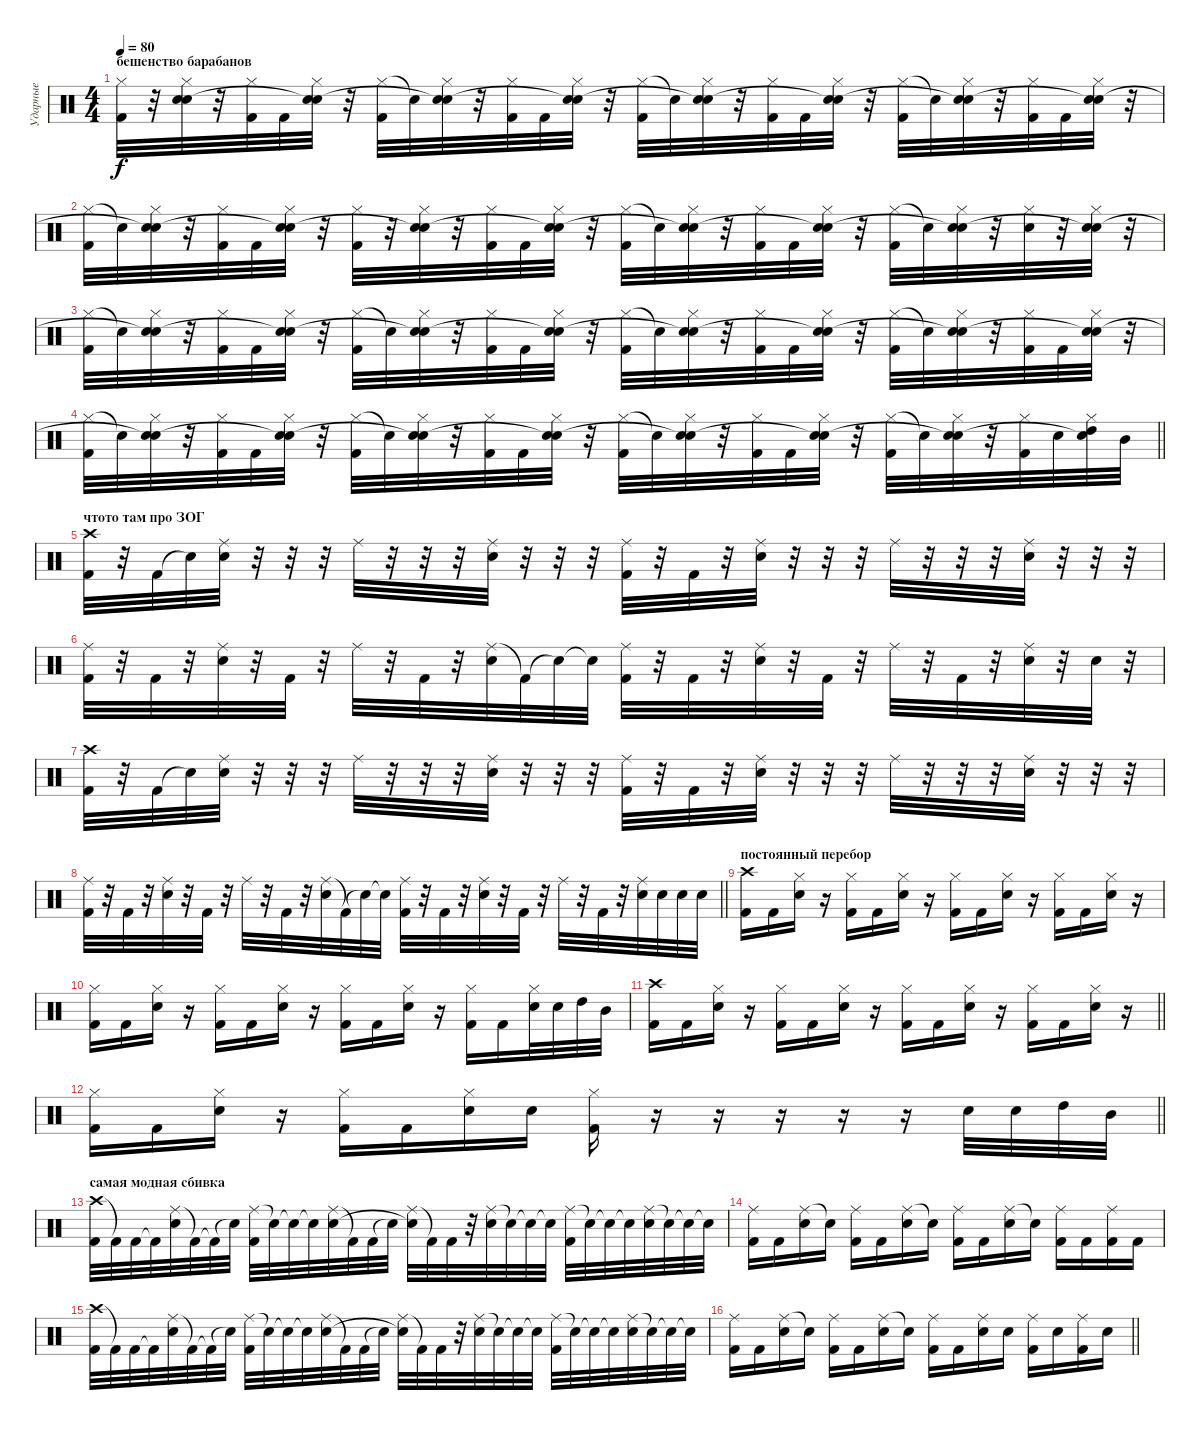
\track ("Ударные" "Ударные") {instrument percussion}
\staff {score}
\articulation defaults
\ts (4 4)
\section ("" "бешенство барабанов")
\tempo 80
\clef neutral
\ks c
("Hi-Hat (closed)" "Kick (hit) 2").32{dy f} r.32 ("Hi-Hat (closed)" "Snare (hit) 2" "Snare (hit)").32 r.32 ("Hi-Hat (closed)" "Kick (hit) 2").32 "Kick (hit) 2".32 ("Hi-Hat (closed)" "Snare (hit) 2" "Snare (hit)"{t}).32 r.32 ("Hi-Hat (closed)" "Kick (hit) 2").32 "Snare (hit)"{t}.32 ("Hi-Hat (closed)" "Snare (hit) 2" "Snare (hit)"{t}).32 r.32 ("Hi-Hat (closed)" "Kick (hit) 2").32 "Kick (hit) 2".32 ("Hi-Hat (closed)" "Snare (hit) 2" "Snare (hit)"{t}).32 r.32 ("Hi-Hat (closed)" "Kick (hit) 2").32 "Snare (hit)"{t}.32 ("Hi-Hat (closed)" "Snare (hit) 2" "Snare (hit)"{t}).32 r.32 ("Hi-Hat (closed)" "Kick (hit) 2").32 "Kick (hit) 2".32 ("Hi-Hat (closed)" "Snare (hit) 2" "Snare (hit)"{t}).32 r.32 ("Hi-Hat (closed)" "Kick (hit) 2").32 "Snare (hit)"{t}.32 ("Hi-Hat (closed)" "Snare (hit) 2" "Snare (hit)"{t}).32 r.32 ("Hi-Hat (closed)" "Kick (hit) 2").32 "Kick (hit) 2".32 ("Hi-Hat (closed)" "Snare (hit) 2" "Snare (hit)"{t}).32 r.32 |
("Hi-Hat (closed)" "Kick (hit) 2").32 "Snare (hit)"{t}.32 ("Hi-Hat (closed)" "Snare (hit) 2" "Snare (hit)"{t}).32 r.32 ("Hi-Hat (closed)" "Kick (hit) 2").32 "Kick (hit) 2".32 ("Hi-Hat (closed)" "Snare (hit) 2" "Snare (hit)"{t}).32 r.32 ("Hi-Hat (closed)" "Kick (hit) 2").32 r.32 ("Hi-Hat (closed)" "Snare (hit) 2" "Snare (hit)"{t}).32 r.32 ("Hi-Hat (closed)" "Kick (hit) 2").32 "Kick (hit) 2".32 ("Hi-Hat (closed)" "Snare (hit) 2" "Snare (hit)"{t}).32 r.32 ("Hi-Hat (closed)" "Kick (hit) 2").32 "Snare (hit)"{t}.32 ("Hi-Hat (closed)" "Snare (hit) 2" "Snare (hit)"{t}).32 r.32 ("Hi-Hat (closed)" "Kick (hit) 2").32 "Kick (hit) 2".32 ("Hi-Hat (closed)" "Snare (hit) 2" "Snare (hit)"{t}).32 r.32 ("Hi-Hat (closed)" "Kick (hit) 2").32 "Snare (hit)"{t}.32 ("Hi-Hat (closed)" "Snare (hit) 2" "Snare (hit)"{t}).32 r.32 ("Hi-Hat (closed)" "Snare (hit) 2").32 r.32 ("Hi-Hat (closed)" "Snare (hit) 2" "Snare (hit)"{t}).32 r.32 |
("Hi-Hat (closed)" "Kick (hit) 2").32 "Snare (hit)"{t}.32 ("Hi-Hat (closed)" "Snare (hit) 2" "Snare (hit)"{t}).32 r.32 ("Hi-Hat (closed)" "Kick (hit) 2").32 "Kick (hit) 2".32 ("Hi-Hat (closed)" "Snare (hit) 2" "Snare (hit)"{t}).32 r.32 ("Hi-Hat (closed)" "Kick (hit) 2").32 "Snare (hit)"{t}.32 ("Hi-Hat (closed)" "Snare (hit) 2" "Snare (hit)"{t}).32 r.32 ("Hi-Hat (closed)" "Kick (hit) 2").32 "Kick (hit) 2".32 ("Hi-Hat (closed)" "Snare (hit) 2" "Snare (hit)"{t}).32 r.32 ("Hi-Hat (closed)" "Kick (hit) 2").32 "Snare (hit)"{t}.32 ("Hi-Hat (closed)" "Snare (hit) 2" "Snare (hit)"{t}).32 r.32 ("Hi-Hat (closed)" "Kick (hit) 2").32 "Kick (hit) 2".32 ("Hi-Hat (closed)" "Snare (hit) 2" "Snare (hit)"{t}).32 r.32 ("Hi-Hat (closed)" "Kick (hit) 2").32 "Snare (hit)"{t}.32 ("Hi-Hat (closed)" "Snare (hit) 2" "Snare (hit)"{t}).32 r.32 ("Hi-Hat (closed)" "Kick (hit) 2").32 "Kick (hit) 2".32 ("Hi-Hat (closed)" "Snare (hit) 2" "Snare (hit)"{t}).32 r.32 |
\barLineRight lightlight
("Hi-Hat (closed)" "Kick (hit) 2").32 "Snare (hit)"{t}.32 ("Hi-Hat (closed)" "Snare (hit) 2" "Snare (hit)"{t}).32 r.32 ("Hi-Hat (closed)" "Kick (hit) 2").32 "Kick (hit) 2".32 ("Hi-Hat (closed)" "Snare (hit) 2" "Snare (hit)"{t}).32 r.32 ("Hi-Hat (closed)" "Kick (hit) 2").32 "Snare (hit)"{t}.32 ("Hi-Hat (closed)" "Snare (hit) 2" "Snare (hit)"{t}).32 r.32 ("Hi-Hat (closed)" "Kick (hit) 2").32 "Kick (hit) 2".32 ("Hi-Hat (closed)" "Snare (hit) 2" "Snare (hit)"{t}).32 r.32 ("Hi-Hat (closed)" "Kick (hit) 2").32 "Snare (hit)"{t}.32 ("Hi-Hat (closed)" "Snare (hit) 2" "Snare (hit)"{t}).32 r.32 ("Hi-Hat (closed)" "Kick (hit) 2").32 "Kick (hit) 2".32 ("Hi-Hat (closed)" "Snare (hit) 2" "Snare (hit)"{t}).32 r.32 ("Hi-Hat (closed)" "Kick (hit) 2").32 "Snare (hit)"{t}.32 ("Hi-Hat (closed)" "Snare (hit) 2" "Snare (hit)"{t}).32 r.32 ("Hi-Hat (closed)" "Kick (hit) 2").32 "Snare (hit) 2".32 ("Hi-Hat (closed)" "High Tom (hit)" "Snare (hit)"{t}).32 "Mid Tom (hit)".32 |
\section ("" "чтото там про ЗОГ")
("Crash high (hit)" "Kick (hit) 2").32 r.32 "Kick (hit) 2".32 "Snare (hit) 2"{t}.32 ("Ride (middle)" "Snare (hit) 2").32 r.32 r.32 r.32 "Ride (middle)".32 r.32 r.32 r.32 ("Ride (middle)" "Snare (hit) 2").32 r.32 r.32 r.32 ("Ride (middle)" "Kick (hit) 2").32 r.32 "Kick (hit) 2".32 r.32 ("Ride (middle)" "Snare (hit) 2").32 r.32 r.32 r.32 "Ride (middle)".32 r.32 r.32 r.32 ("Ride (middle)" "Snare (hit) 2").32 r.32 r.32 r.32 |
("Ride (middle)" "Kick (hit) 2").32 r.32 "Kick (hit) 2".32 r.32 ("Ride (middle)" "Snare (hit) 2").32 r.32 "Kick (hit) 2".32 r.32 "Ride (middle)".32 r.32 "Kick (hit) 2".32 r.32 ("Ride (middle)" "Snare (hit) 2").32 "Kick (hit) 2"{t}.32 "Snare (hit)"{t}.32 "Snare (hit)"{t}.32 ("Ride (middle)" "Kick (hit) 2").32 r.32 "Kick (hit) 2".32 r.32 ("Ride (middle)" "Snare (hit) 2").32 r.32 "Kick (hit) 2".32 r.32 "Ride (middle)".32 r.32 "Kick (hit) 2".32 r.32 ("Ride (middle)" "Snare (hit) 2").32 r.32 "Snare (hit) 2".32 r.32 |
("Crash high (hit)" "Kick (hit) 2").32 r.32 "Kick (hit) 2".32 "Snare (hit) 2"{t}.32 ("Ride (middle)" "Snare (hit) 2").32 r.32 r.32 r.32 "Ride (middle)".32 r.32 r.32 r.32 ("Ride (middle)" "Snare (hit) 2").32 r.32 r.32 r.32 ("Ride (middle)" "Kick (hit) 2").32 r.32 "Kick (hit) 2".32 r.32 ("Ride (middle)" "Snare (hit) 2").32 r.32 r.32 r.32 "Ride (middle)".32 r.32 r.32 r.32 ("Ride (middle)" "Snare (hit) 2").32 r.32 r.32 r.32 |
\barLineRight lightlight
("Ride (middle)" "Kick (hit) 2").32 r.32 "Kick (hit) 2".32 r.32 ("Ride (middle)" "Snare (hit) 2").32 r.32 "Kick (hit) 2".32 r.32 "Ride (middle)".32 r.32 "Kick (hit) 2".32 r.32 ("Ride (middle)" "Snare (hit) 2").32 "Kick (hit) 2"{t}.32 "Snare (hit)"{t}.32 "Snare (hit)"{t}.32 ("Ride (middle)" "Kick (hit) 2").32 r.32 "Kick (hit) 2".32 r.32 ("Ride (middle)" "Snare (hit) 2").32 r.32 "Kick (hit) 2".32 r.32 "Ride (middle)".32 r.32 "Kick (hit) 2".32 r.32 ("Ride (middle)" "Snare (hit) 2").32 "Snare (hit) 2".32 "Snare (hit) 2".32 "Snare (hit) 2".32 |
\section ("" "постоянный перебор")
("Crash high (hit)" "Kick (hit) 2").16 "Kick (hit) 2".16 ("Hi-Hat (closed)" "Snare (hit) 2").16 r.16 ("Hi-Hat (closed)" "Kick (hit) 2").16 "Kick (hit) 2".16 ("Hi-Hat (closed)" "Snare (hit) 2").16 r.16 ("Hi-Hat (closed)" "Kick (hit) 2").16 "Kick (hit) 2".16 ("Hi-Hat (closed)" "Snare (hit) 2").16 r.16 ("Hi-Hat (closed)" "Kick (hit) 2").16 "Kick (hit) 2".16 ("Hi-Hat (closed)" "Snare (hit) 2").16 r.16 |
("Hi-Hat (closed)" "Kick (hit) 2").16 "Kick (hit) 2".16 ("Hi-Hat (closed)" "Snare (hit) 2").16 r.16 ("Hi-Hat (closed)" "Kick (hit) 2").16 "Kick (hit) 2".16 ("Hi-Hat (closed)" "Snare (hit) 2").16 r.16 ("Hi-Hat (closed)" "Kick (hit) 2").16 "Kick (hit) 2".16 ("Hi-Hat (closed)" "Snare (hit) 2").16 r.16 ("Hi-Hat (closed)" "Kick (hit) 2").16 "Kick (hit) 2".16 ("Hi-Hat (closed)" "Snare (hit) 2").32 "Snare (hit) 2".32 "High Tom (hit)".32 "Mid Tom (hit)".32 |
\barLineRight lightlight
("Crash high (hit)" "Kick (hit) 2").16 "Kick (hit) 2".16 ("Hi-Hat (closed)" "Snare (hit) 2").16 r.16 ("Hi-Hat (closed)" "Kick (hit) 2").16 "Kick (hit) 2".16 ("Hi-Hat (closed)" "Snare (hit) 2").16 r.16 ("Hi-Hat (closed)" "Kick (hit) 2").16 "Kick (hit) 2".16 ("Hi-Hat (closed)" "Snare (hit) 2").16 r.16 ("Hi-Hat (closed)" "Kick (hit) 2").16 "Kick (hit) 2".16 ("Hi-Hat (closed)" "Snare (hit) 2").16 r.16 |
\barLineRight lightlight
("Hi-Hat (closed)" "Kick (hit) 2").16 "Kick (hit) 2".16 ("Hi-Hat (closed)" "Snare (hit) 2").16 r.16 ("Hi-Hat (closed)" "Kick (hit) 2").16 "Kick (hit) 2".16 ("Hi-Hat (closed)" "Snare (hit) 2").16 "Snare (hit) 2".16 ("Hi-Hat (closed)" "Kick (hit) 2").16 r.16 r.16 r.16 r.16 r.16 "Snare (hit) 2".32 "Snare (hit) 2".32 "High Tom (hit)".32 "Mid Tom (hit)".32 |
\section ("" "самая модная сбивка")
("Crash high (hit)" "Kick (hit) 2").32 "Kick (hit) 2"{t}.32 "Kick (hit) 2".32 "Kick (hit) 2"{t}.32 ("Ride (middle)" "Snare (hit) 2").32 "Kick (hit) 2"{t}.32 "Kick (hit) 2"{t}.32 "Snare (hit) 2"{t}.32 ("Ride (middle)" "Kick (hit) 2").32 "Snare (hit) 2"{t}.32 "Snare (hit) 2"{t}.32 "Snare (hit) 2"{t}.32 ("Ride (middle)" "Snare (hit) 2").32 "Kick (hit) 2"{t}.32 "Kick (hit) 2".32 "Snare (hit) 2"{t}.32 ("Ride (middle)" "Snare (hit)"{t}).32 "Kick (hit) 2"{t}.32 "Kick (hit) 2".32 r.32 ("Ride (middle)" "Snare (hit) 2").32 "Snare (hit)"{t}.32 "Snare (hit)"{t}.32 "Snare (hit)"{t}.32 ("Ride (middle)" "Kick (hit) 2").32 "Snare (hit)"{t}.32 "Snare (hit)"{t}.32 "Snare (hit)"{t}.32 ("Ride (middle)" "Snare (hit) 2").32 "Snare (hit)"{t}.32 "Snare (hit)"{t}.32 "Snare (hit)"{t}.32 |
("Ride (middle)" "Kick (hit) 2").16 "Kick (hit) 2".16 ("Ride (middle)" "Snare (hit) 2").16 "Snare (hit)"{t}.16 ("Ride (middle)" "Kick (hit) 2").16 "Kick (hit) 2".16 ("Ride (middle)" "Snare (hit) 2").16 "Snare (hit)"{t}.16 ("Ride (middle)" "Kick (hit) 2").16 "Kick (hit) 2".16 ("Ride (middle)" "Snare (hit) 2").16 "Snare (hit)"{t}.16 ("Ride (middle)" "Kick (hit) 2").16 "Kick (hit) 2".16 ("Ride (middle)" "Kick (hit) 2").16 "Kick (hit) 2".16 |
("Crash high (hit)" "Kick (hit) 2").32 "Kick (hit) 2"{t}.32 "Kick (hit) 2".32 "Kick (hit) 2"{t}.32 ("Ride (middle)" "Snare (hit) 2").32 "Kick (hit) 2"{t}.32 "Kick (hit) 2"{t}.32 "Snare (hit) 2"{t}.32 ("Ride (middle)" "Kick (hit) 2").32 "Snare (hit) 2"{t}.32 "Snare (hit) 2"{t}.32 "Snare (hit) 2"{t}.32 ("Ride (middle)" "Snare (hit) 2").32 "Kick (hit) 2"{t}.32 "Kick (hit) 2".32 "Snare (hit) 2"{t}.32 ("Ride (middle)" "Snare (hit)"{t}).32 "Kick (hit) 2"{t}.32 "Kick (hit) 2".32 r.32 ("Ride (middle)" "Snare (hit) 2").32 "Snare (hit)"{t}.32 "Snare (hit)"{t}.32 "Snare (hit)"{t}.32 ("Ride (middle)" "Kick (hit) 2").32 "Snare (hit)"{t}.32 "Snare (hit)"{t}.32 "Snare (hit)"{t}.32 ("Ride (middle)" "Snare (hit) 2").32 "Snare (hit)"{t}.32 "Snare (hit)"{t}.32 "Snare (hit)"{t}.32 |
\barLineRight lightlight
("Ride (middle)" "Kick (hit) 2").16 "Kick (hit) 2".16 ("Ride (middle)" "Snare (hit) 2").16 "Snare (hit)"{t}.16 ("Ride (middle)" "Kick (hit) 2").16 "Kick (hit) 2".16 ("Ride (middle)" "Snare (hit) 2").16 "Snare (hit)"{t}.16 ("Ride (middle)" "Kick (hit) 2").16 "Kick (hit) 2".16 ("Ride (middle)" "Snare (hit) 2").16 "Snare (hit) 2".16 ("Ride (middle)" "Kick (hit) 2").16 "Snare (hit) 2".16 ("Ride (middle)" "Kick (hit) 2").16 "Snare (hit) 2".16
